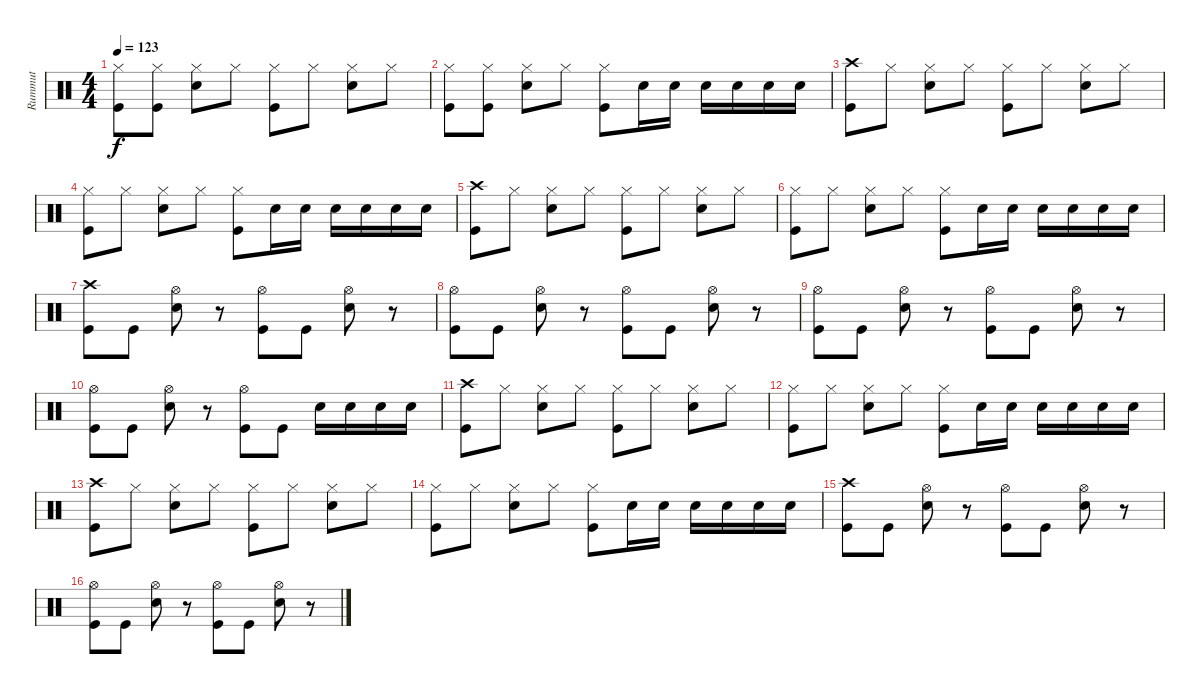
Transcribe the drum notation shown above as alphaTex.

\track ("Rummut" "Rummut") {instrument percussion}
\staff {score}
\articulation defaults
\ts (4 4)
\tempo 123
\clef neutral
\ks c
("Hi-Hat (closed)" "Kick (hit)").8{dy f} ("Hi-Hat (closed)" "Kick (hit)").8 ("Hi-Hat (closed)" "Snare (hit) 2").8 "Hi-Hat (closed)".8 ("Hi-Hat (closed)" "Kick (hit)").8 "Hi-Hat (closed)".8 ("Hi-Hat (closed)" "Snare (hit) 2").8 "Hi-Hat (closed)".8 |
("Hi-Hat (closed)" "Kick (hit)").8 ("Hi-Hat (closed)" "Kick (hit)").8 ("Hi-Hat (closed)" "Snare (hit) 2").8 "Hi-Hat (closed)".8 ("Hi-Hat (closed)" "Kick (hit)").8 "Snare (hit) 2".16 "Snare (hit) 2".16 "Snare (hit) 2".16 "Snare (hit) 2".16 "Snare (hit) 2".16 "Snare (hit) 2".16 |
("Crash high (hit)" "Kick (hit)").8 "Hi-Hat (closed)".8 ("Hi-Hat (closed)" "Snare (hit) 2").8 "Hi-Hat (closed)".8 ("Hi-Hat (closed)" "Kick (hit)").8 "Hi-Hat (closed)".8 ("Hi-Hat (closed)" "Snare (hit) 2").8 "Hi-Hat (closed)".8 |
("Hi-Hat (closed)" "Kick (hit)").8 "Hi-Hat (closed)".8 ("Hi-Hat (closed)" "Snare (hit) 2").8 "Hi-Hat (closed)".8 ("Hi-Hat (closed)" "Kick (hit)").8 "Snare (hit) 2".16 "Snare (hit) 2".16 "Snare (hit) 2".16 "Snare (hit) 2".16 "Snare (hit) 2".16 "Snare (hit) 2".16 |
("Crash high (hit)" "Kick (hit)").8 "Hi-Hat (closed)".8 ("Hi-Hat (closed)" "Snare (hit) 2").8 "Hi-Hat (closed)".8 ("Hi-Hat (closed)" "Kick (hit)").8 "Hi-Hat (closed)".8 ("Hi-Hat (closed)" "Snare (hit) 2").8 "Hi-Hat (closed)".8 |
("Hi-Hat (closed)" "Kick (hit)").8 "Hi-Hat (closed)".8 ("Hi-Hat (closed)" "Snare (hit) 2").8 "Hi-Hat (closed)".8 ("Hi-Hat (closed)" "Kick (hit)").8 "Snare (hit) 2".16 "Snare (hit) 2".16 "Snare (hit) 2".16 "Snare (hit) 2".16 "Snare (hit) 2".16 "Snare (hit) 2".16 |
("Crash high (hit)" "Kick (hit)").8 "Kick (hit)".8 ("Hi-Hat (open)" "Snare (hit) 2").8 r.8 ("Hi-Hat (open)" "Kick (hit)").8 "Kick (hit)".8 ("Hi-Hat (open)" "Snare (hit) 2").8 r.8 |
("Hi-Hat (open)" "Kick (hit)").8 "Kick (hit)".8 ("Hi-Hat (open)" "Snare (hit) 2").8 r.8 ("Hi-Hat (open)" "Kick (hit)").8 "Kick (hit)".8 ("Hi-Hat (open)" "Snare (hit) 2").8 r.8 |
("Hi-Hat (open)" "Kick (hit)").8 "Kick (hit)".8 ("Hi-Hat (open)" "Snare (hit) 2").8 r.8 ("Hi-Hat (open)" "Kick (hit)").8 "Kick (hit)".8 ("Hi-Hat (open)" "Snare (hit) 2").8 r.8 |
("Hi-Hat (open)" "Kick (hit)").8 "Kick (hit)".8 ("Hi-Hat (open)" "Snare (hit) 2").8 r.8 ("Hi-Hat (open)" "Kick (hit)").8 "Kick (hit)".8 "Snare (hit) 2".16 "Snare (hit) 2".16 "Snare (hit) 2".16 "Snare (hit) 2".16 |
("Crash high (hit)" "Kick (hit)").8 "Hi-Hat (closed)".8 ("Hi-Hat (closed)" "Snare (hit) 2").8 "Hi-Hat (closed)".8 ("Hi-Hat (closed)" "Kick (hit)").8 "Hi-Hat (closed)".8 ("Hi-Hat (closed)" "Snare (hit) 2").8 "Hi-Hat (closed)".8 |
("Hi-Hat (closed)" "Kick (hit)").8 "Hi-Hat (closed)".8 ("Hi-Hat (closed)" "Snare (hit) 2").8 "Hi-Hat (closed)".8 ("Hi-Hat (closed)" "Kick (hit)").8 "Snare (hit) 2".16 "Snare (hit) 2".16 "Snare (hit) 2".16 "Snare (hit) 2".16 "Snare (hit) 2".16 "Snare (hit) 2".16 |
("Crash high (hit)" "Kick (hit)").8 "Hi-Hat (closed)".8 ("Hi-Hat (closed)" "Snare (hit) 2").8 "Hi-Hat (closed)".8 ("Hi-Hat (closed)" "Kick (hit)").8 "Hi-Hat (closed)".8 ("Hi-Hat (closed)" "Snare (hit) 2").8 "Hi-Hat (closed)".8 |
("Hi-Hat (closed)" "Kick (hit)").8 "Hi-Hat (closed)".8 ("Hi-Hat (closed)" "Snare (hit) 2").8 "Hi-Hat (closed)".8 ("Hi-Hat (closed)" "Kick (hit)").8 "Snare (hit) 2".16 "Snare (hit) 2".16 "Snare (hit) 2".16 "Snare (hit) 2".16 "Snare (hit) 2".16 "Snare (hit) 2".16 |
("Crash high (hit)" "Kick (hit)").8 "Kick (hit)".8 ("Hi-Hat (open)" "Snare (hit) 2").8 r.8 ("Hi-Hat (open)" "Kick (hit)").8 "Kick (hit)".8 ("Hi-Hat (open)" "Snare (hit) 2").8 r.8 |
("Hi-Hat (open)" "Kick (hit)").8 "Kick (hit)".8 ("Hi-Hat (open)" "Snare (hit) 2").8 r.8 ("Hi-Hat (open)" "Kick (hit)").8 "Kick (hit)".8 ("Hi-Hat (open)" "Snare (hit) 2").8 r.8
